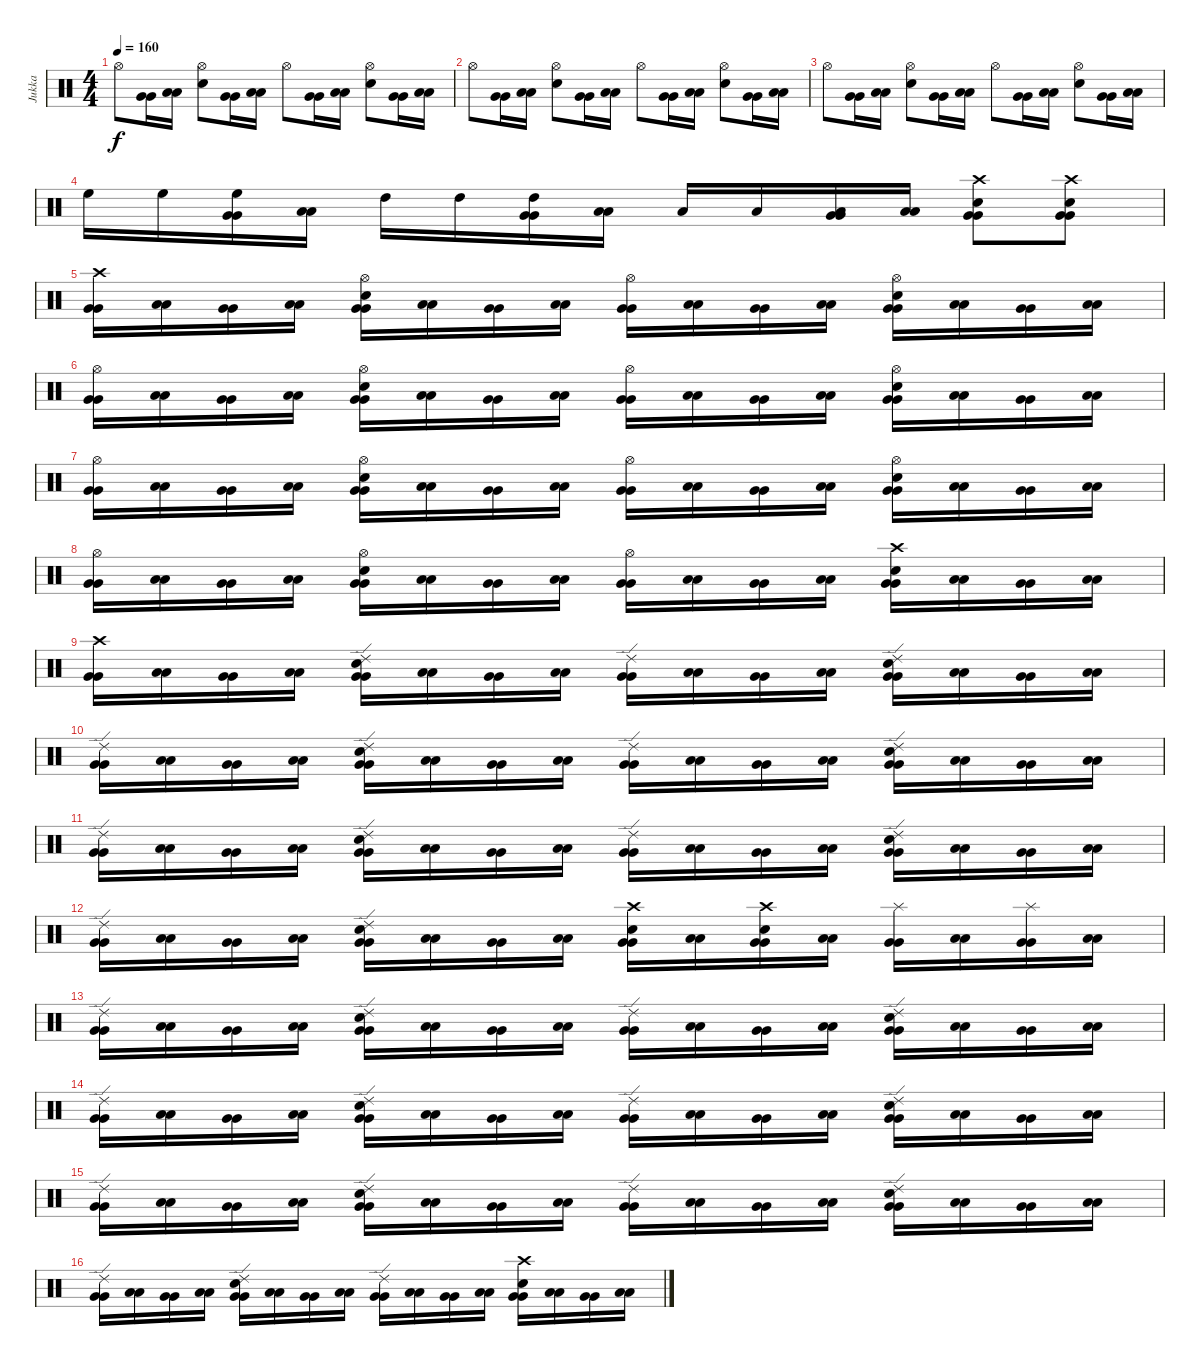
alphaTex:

\track ("Jukka" "Jukka") {instrument percussion}
\staff {score}
\articulation defaults
\ts (4 4)
\tempo 160
\clef neutral
\ks c "Hi-Hat (open)".8{dy f}
("Very Low Tom (hit)" "Very Low Tom (hit)").16 ("Low Floor Tom (hit)" "Low Floor Tom (hit)").16 ("Hi-Hat (open)" "Electric Snare (hit)").8 ("Very Low Tom (hit)" "Very Low Tom (hit)").16 ("Low Floor Tom (hit)" "Low Floor Tom (hit)").16 "Hi-Hat (open)".8 ("Very Low Tom (hit)" "Very Low Tom (hit)").16 ("Low Floor Tom (hit)" "Low Floor Tom (hit)").16 ("Hi-Hat (open)" "Electric Snare (hit)").8 ("Very Low Tom (hit)" "Very Low Tom (hit)").16 ("Low Floor Tom (hit)" "Low Floor Tom (hit)").16 |
"Hi-Hat (open)".8 ("Very Low Tom (hit)" "Very Low Tom (hit)").16 ("Low Floor Tom (hit)" "Low Floor Tom (hit)").16 ("Hi-Hat (open)" "Electric Snare (hit)").8 ("Very Low Tom (hit)" "Very Low Tom (hit)").16 ("Low Floor Tom (hit)" "Low Floor Tom (hit)").16 "Hi-Hat (open)".8 ("Very Low Tom (hit)" "Very Low Tom (hit)").16 ("Low Floor Tom (hit)" "Low Floor Tom (hit)").16 ("Hi-Hat (open)" "Electric Snare (hit)").8 ("Very Low Tom (hit)" "Very Low Tom (hit)").16 ("Low Floor Tom (hit)" "Low Floor Tom (hit)").16 |
"Hi-Hat (open)".8 ("Very Low Tom (hit)" "Very Low Tom (hit)").16 ("Low Floor Tom (hit)" "Low Floor Tom (hit)").16 ("Hi-Hat (open)" "Electric Snare (hit)").8 ("Very Low Tom (hit)" "Very Low Tom (hit)").16 ("Low Floor Tom (hit)" "Low Floor Tom (hit)").16 "Hi-Hat (open)".8 ("Very Low Tom (hit)" "Very Low Tom (hit)").16 ("Low Floor Tom (hit)" "Low Floor Tom (hit)").16 ("Hi-Hat (open)" "Electric Snare (hit)").8 ("Very Low Tom (hit)" "Very Low Tom (hit)").16 ("Low Floor Tom (hit)" "Low Floor Tom (hit)").16 |
"High Floor Tom (hit)".16 "High Floor Tom (hit)".16 ("High Floor Tom (hit)" "Very Low Tom (hit)" "Very Low Tom (hit)").16 ("Low Floor Tom (hit)" "Low Floor Tom (hit)").16 "High Tom (hit)".16 "High Tom (hit)".16 ("High Tom (hit)" "Very Low Tom (hit)" "Very Low Tom (hit)").16 ("Low Floor Tom (hit)" "Low Floor Tom (hit)").16 "Low Tom (hit)".16 "Low Tom (hit)".16 ("Low Tom (hit)" "Very Low Tom (hit)" "Very Low Tom (hit)").16 ("Low Floor Tom (hit)" "Low Floor Tom (hit)").16 ("Electric Snare (hit)" "Crash high (hit)" "Very Low Tom (hit)" "Very Low Tom (hit)").8 ("Electric Snare (hit)" "Crash high (hit)" "Very Low Tom (hit)" "Very Low Tom (hit)").8 |
("Crash high (hit)" "Very Low Tom (hit)" "Very Low Tom (hit)").16 ("Low Floor Tom (hit)" "Low Floor Tom (hit)").16 ("Very Low Tom (hit)" "Very Low Tom (hit)").16 ("Low Floor Tom (hit)" "Low Floor Tom (hit)").16 ("Electric Snare (hit)" "Hi-Hat (open)" "Very Low Tom (hit)" "Very Low Tom (hit)").16 ("Low Floor Tom (hit)" "Low Floor Tom (hit)").16 ("Very Low Tom (hit)" "Very Low Tom (hit)").16 ("Low Floor Tom (hit)" "Low Floor Tom (hit)").16 ("Hi-Hat (open)" "Very Low Tom (hit)" "Very Low Tom (hit)").16 ("Low Floor Tom (hit)" "Low Floor Tom (hit)").16 ("Very Low Tom (hit)" "Very Low Tom (hit)").16 ("Low Floor Tom (hit)" "Low Floor Tom (hit)").16 ("Electric Snare (hit)" "Hi-Hat (open)" "Very Low Tom (hit)" "Very Low Tom (hit)").16 ("Low Floor Tom (hit)" "Low Floor Tom (hit)").16 ("Very Low Tom (hit)" "Very Low Tom (hit)").16 ("Low Floor Tom (hit)" "Low Floor Tom (hit)").16 |
("Hi-Hat (open)" "Very Low Tom (hit)" "Very Low Tom (hit)").16 ("Low Floor Tom (hit)" "Low Floor Tom (hit)").16 ("Very Low Tom (hit)" "Very Low Tom (hit)").16 ("Low Floor Tom (hit)" "Low Floor Tom (hit)").16 ("Electric Snare (hit)" "Hi-Hat (open)" "Very Low Tom (hit)" "Very Low Tom (hit)").16 ("Low Floor Tom (hit)" "Low Floor Tom (hit)").16 ("Very Low Tom (hit)" "Very Low Tom (hit)").16 ("Low Floor Tom (hit)" "Low Floor Tom (hit)").16 ("Hi-Hat (open)" "Very Low Tom (hit)" "Very Low Tom (hit)").16 ("Low Floor Tom (hit)" "Low Floor Tom (hit)").16 ("Very Low Tom (hit)" "Very Low Tom (hit)").16 ("Low Floor Tom (hit)" "Low Floor Tom (hit)").16 ("Electric Snare (hit)" "Hi-Hat (open)" "Very Low Tom (hit)" "Very Low Tom (hit)").16 ("Low Floor Tom (hit)" "Low Floor Tom (hit)").16 ("Very Low Tom (hit)" "Very Low Tom (hit)").16 ("Low Floor Tom (hit)" "Low Floor Tom (hit)").16 |
("Hi-Hat (open)" "Very Low Tom (hit)" "Very Low Tom (hit)").16 ("Low Floor Tom (hit)" "Low Floor Tom (hit)").16 ("Very Low Tom (hit)" "Very Low Tom (hit)").16 ("Low Floor Tom (hit)" "Low Floor Tom (hit)").16 ("Electric Snare (hit)" "Hi-Hat (open)" "Very Low Tom (hit)" "Very Low Tom (hit)").16 ("Low Floor Tom (hit)" "Low Floor Tom (hit)").16 ("Very Low Tom (hit)" "Very Low Tom (hit)").16 ("Low Floor Tom (hit)" "Low Floor Tom (hit)").16 ("Hi-Hat (open)" "Very Low Tom (hit)" "Very Low Tom (hit)").16 ("Low Floor Tom (hit)" "Low Floor Tom (hit)").16 ("Very Low Tom (hit)" "Very Low Tom (hit)").16 ("Low Floor Tom (hit)" "Low Floor Tom (hit)").16 ("Electric Snare (hit)" "Hi-Hat (open)" "Very Low Tom (hit)" "Very Low Tom (hit)").16 ("Low Floor Tom (hit)" "Low Floor Tom (hit)").16 ("Very Low Tom (hit)" "Very Low Tom (hit)").16 ("Low Floor Tom (hit)" "Low Floor Tom (hit)").16 |
("Hi-Hat (open)" "Very Low Tom (hit)" "Very Low Tom (hit)").16 ("Low Floor Tom (hit)" "Low Floor Tom (hit)").16 ("Very Low Tom (hit)" "Very Low Tom (hit)").16 ("Low Floor Tom (hit)" "Low Floor Tom (hit)").16 ("Electric Snare (hit)" "Hi-Hat (open)" "Very Low Tom (hit)" "Very Low Tom (hit)").16 ("Low Floor Tom (hit)" "Low Floor Tom (hit)").16 ("Very Low Tom (hit)" "Very Low Tom (hit)").16 ("Low Floor Tom (hit)" "Low Floor Tom (hit)").16 ("Hi-Hat (open)" "Very Low Tom (hit)" "Very Low Tom (hit)").16 ("Low Floor Tom (hit)" "Low Floor Tom (hit)").16 ("Very Low Tom (hit)" "Very Low Tom (hit)").16 ("Low Floor Tom (hit)" "Low Floor Tom (hit)").16 ("Electric Snare (hit)" "Crash high (hit)" "Very Low Tom (hit)" "Very Low Tom (hit)").16 ("Low Floor Tom (hit)" "Low Floor Tom (hit)").16 ("Very Low Tom (hit)" "Very Low Tom (hit)").16 ("Low Floor Tom (hit)" "Low Floor Tom (hit)").16 |
("Crash high (hit)" "Very Low Tom (hit)" "Very Low Tom (hit)").16 ("Low Floor Tom (hit)" "Low Floor Tom (hit)").16 ("Very Low Tom (hit)" "Very Low Tom (hit)").16 ("Low Floor Tom (hit)" "Low Floor Tom (hit)").16 ("Electric Snare (hit)" "Ride (edge) 2" "Very Low Tom (hit)" "Very Low Tom (hit)").16 ("Low Floor Tom (hit)" "Low Floor Tom (hit)").16 ("Very Low Tom (hit)" "Very Low Tom (hit)").16 ("Low Floor Tom (hit)" "Low Floor Tom (hit)").16 ("Ride (edge) 2" "Very Low Tom (hit)" "Very Low Tom (hit)").16 ("Low Floor Tom (hit)" "Low Floor Tom (hit)").16 ("Very Low Tom (hit)" "Very Low Tom (hit)").16 ("Low Floor Tom (hit)" "Low Floor Tom (hit)").16 ("Electric Snare (hit)" "Ride (edge) 2" "Very Low Tom (hit)" "Very Low Tom (hit)").16 ("Low Floor Tom (hit)" "Low Floor Tom (hit)").16 ("Very Low Tom (hit)" "Very Low Tom (hit)").16 ("Low Floor Tom (hit)" "Low Floor Tom (hit)").16 |
("Ride (edge) 2" "Very Low Tom (hit)" "Very Low Tom (hit)").16 ("Low Floor Tom (hit)" "Low Floor Tom (hit)").16 ("Very Low Tom (hit)" "Very Low Tom (hit)").16 ("Low Floor Tom (hit)" "Low Floor Tom (hit)").16 ("Electric Snare (hit)" "Ride (edge) 2" "Very Low Tom (hit)" "Very Low Tom (hit)").16 ("Low Floor Tom (hit)" "Low Floor Tom (hit)").16 ("Very Low Tom (hit)" "Very Low Tom (hit)").16 ("Low Floor Tom (hit)" "Low Floor Tom (hit)").16 ("Ride (edge) 2" "Very Low Tom (hit)" "Very Low Tom (hit)").16 ("Low Floor Tom (hit)" "Low Floor Tom (hit)").16 ("Very Low Tom (hit)" "Very Low Tom (hit)").16 ("Low Floor Tom (hit)" "Low Floor Tom (hit)").16 ("Electric Snare (hit)" "Ride (edge) 2" "Very Low Tom (hit)" "Very Low Tom (hit)").16 ("Low Floor Tom (hit)" "Low Floor Tom (hit)").16 ("Very Low Tom (hit)" "Very Low Tom (hit)").16 ("Low Floor Tom (hit)" "Low Floor Tom (hit)").16 |
("Ride (edge) 2" "Very Low Tom (hit)" "Very Low Tom (hit)").16 ("Low Floor Tom (hit)" "Low Floor Tom (hit)").16 ("Very Low Tom (hit)" "Very Low Tom (hit)").16 ("Low Floor Tom (hit)" "Low Floor Tom (hit)").16 ("Electric Snare (hit)" "Ride (edge) 2" "Very Low Tom (hit)" "Very Low Tom (hit)").16 ("Low Floor Tom (hit)" "Low Floor Tom (hit)").16 ("Very Low Tom (hit)" "Very Low Tom (hit)").16 ("Low Floor Tom (hit)" "Low Floor Tom (hit)").16 ("Ride (edge) 2" "Very Low Tom (hit)" "Very Low Tom (hit)").16 ("Low Floor Tom (hit)" "Low Floor Tom (hit)").16 ("Very Low Tom (hit)" "Very Low Tom (hit)").16 ("Low Floor Tom (hit)" "Low Floor Tom (hit)").16 ("Electric Snare (hit)" "Ride (edge) 2" "Very Low Tom (hit)" "Very Low Tom (hit)").16 ("Low Floor Tom (hit)" "Low Floor Tom (hit)").16 ("Very Low Tom (hit)" "Very Low Tom (hit)").16 ("Low Floor Tom (hit)" "Low Floor Tom (hit)").16 |
("Ride (edge) 2" "Very Low Tom (hit)" "Very Low Tom (hit)").16 ("Low Floor Tom (hit)" "Low Floor Tom (hit)").16 ("Very Low Tom (hit)" "Very Low Tom (hit)").16 ("Low Floor Tom (hit)" "Low Floor Tom (hit)").16 ("Electric Snare (hit)" "Ride (edge) 2" "Very Low Tom (hit)" "Very Low Tom (hit)").16 ("Low Floor Tom (hit)" "Low Floor Tom (hit)").16 ("Very Low Tom (hit)" "Very Low Tom (hit)").16 ("Low Floor Tom (hit)" "Low Floor Tom (hit)").16 ("Electric Snare (hit)" "Crash high (hit)" "Very Low Tom (hit)" "Very Low Tom (hit)").16 ("Low Floor Tom (hit)" "Low Floor Tom (hit)").16 ("Electric Snare (hit)" "Crash high (hit)" "Very Low Tom (hit)" "Very Low Tom (hit)").16 ("Low Floor Tom (hit)" "Low Floor Tom (hit)").16 ("Splash (hit)" "Very Low Tom (hit)" "Very Low Tom (hit)").16 ("Low Floor Tom (hit)" "Low Floor Tom (hit)").16 ("Splash (hit)" "Very Low Tom (hit)" "Very Low Tom (hit)").16 ("Low Floor Tom (hit)" "Low Floor Tom (hit)").16 |
("Ride (edge) 2" "Very Low Tom (hit)" "Very Low Tom (hit)").16 ("Low Floor Tom (hit)" "Low Floor Tom (hit)").16 ("Very Low Tom (hit)" "Very Low Tom (hit)").16 ("Low Floor Tom (hit)" "Low Floor Tom (hit)").16 ("Electric Snare (hit)" "Ride (edge) 2" "Very Low Tom (hit)" "Very Low Tom (hit)").16 ("Low Floor Tom (hit)" "Low Floor Tom (hit)").16 ("Very Low Tom (hit)" "Very Low Tom (hit)").16 ("Low Floor Tom (hit)" "Low Floor Tom (hit)").16 ("Ride (edge) 2" "Very Low Tom (hit)" "Very Low Tom (hit)").16 ("Low Floor Tom (hit)" "Low Floor Tom (hit)").16 ("Very Low Tom (hit)" "Very Low Tom (hit)").16 ("Low Floor Tom (hit)" "Low Floor Tom (hit)").16 ("Electric Snare (hit)" "Ride (edge) 2" "Very Low Tom (hit)" "Very Low Tom (hit)").16 ("Low Floor Tom (hit)" "Low Floor Tom (hit)").16 ("Very Low Tom (hit)" "Very Low Tom (hit)").16 ("Low Floor Tom (hit)" "Low Floor Tom (hit)").16 |
("Ride (edge) 2" "Very Low Tom (hit)" "Very Low Tom (hit)").16 ("Low Floor Tom (hit)" "Low Floor Tom (hit)").16 ("Very Low Tom (hit)" "Very Low Tom (hit)").16 ("Low Floor Tom (hit)" "Low Floor Tom (hit)").16 ("Electric Snare (hit)" "Ride (edge) 2" "Very Low Tom (hit)" "Very Low Tom (hit)").16 ("Low Floor Tom (hit)" "Low Floor Tom (hit)").16 ("Very Low Tom (hit)" "Very Low Tom (hit)").16 ("Low Floor Tom (hit)" "Low Floor Tom (hit)").16 ("Ride (edge) 2" "Very Low Tom (hit)" "Very Low Tom (hit)").16 ("Low Floor Tom (hit)" "Low Floor Tom (hit)").16 ("Very Low Tom (hit)" "Very Low Tom (hit)").16 ("Low Floor Tom (hit)" "Low Floor Tom (hit)").16 ("Electric Snare (hit)" "Ride (edge) 2" "Very Low Tom (hit)" "Very Low Tom (hit)").16 ("Low Floor Tom (hit)" "Low Floor Tom (hit)").16 ("Very Low Tom (hit)" "Very Low Tom (hit)").16 ("Low Floor Tom (hit)" "Low Floor Tom (hit)").16 |
("Ride (edge) 2" "Very Low Tom (hit)" "Very Low Tom (hit)").16 ("Low Floor Tom (hit)" "Low Floor Tom (hit)").16 ("Very Low Tom (hit)" "Very Low Tom (hit)").16 ("Low Floor Tom (hit)" "Low Floor Tom (hit)").16 ("Electric Snare (hit)" "Ride (edge) 2" "Very Low Tom (hit)" "Very Low Tom (hit)").16 ("Low Floor Tom (hit)" "Low Floor Tom (hit)").16 ("Very Low Tom (hit)" "Very Low Tom (hit)").16 ("Low Floor Tom (hit)" "Low Floor Tom (hit)").16 ("Ride (edge) 2" "Very Low Tom (hit)" "Very Low Tom (hit)").16 ("Low Floor Tom (hit)" "Low Floor Tom (hit)").16 ("Very Low Tom (hit)" "Very Low Tom (hit)").16 ("Low Floor Tom (hit)" "Low Floor Tom (hit)").16 ("Electric Snare (hit)" "Ride (edge) 2" "Very Low Tom (hit)" "Very Low Tom (hit)").16 ("Low Floor Tom (hit)" "Low Floor Tom (hit)").16 ("Very Low Tom (hit)" "Very Low Tom (hit)").16 ("Low Floor Tom (hit)" "Low Floor Tom (hit)").16 |
("Ride (edge) 2" "Very Low Tom (hit)" "Very Low Tom (hit)").16 ("Low Floor Tom (hit)" "Low Floor Tom (hit)").16 ("Very Low Tom (hit)" "Very Low Tom (hit)").16 ("Low Floor Tom (hit)" "Low Floor Tom (hit)").16 ("Electric Snare (hit)" "Ride (edge) 2" "Very Low Tom (hit)" "Very Low Tom (hit)").16 ("Low Floor Tom (hit)" "Low Floor Tom (hit)").16 ("Very Low Tom (hit)" "Very Low Tom (hit)").16 ("Low Floor Tom (hit)" "Low Floor Tom (hit)").16 ("Ride (edge) 2" "Very Low Tom (hit)" "Very Low Tom (hit)").16 ("Low Floor Tom (hit)" "Low Floor Tom (hit)").16 ("Very Low Tom (hit)" "Very Low Tom (hit)").16 ("Low Floor Tom (hit)" "Low Floor Tom (hit)").16 ("Electric Snare (hit)" "Crash high (hit)" "Very Low Tom (hit)" "Very Low Tom (hit)").16 ("Low Floor Tom (hit)" "Low Floor Tom (hit)").16 ("Very Low Tom (hit)" "Very Low Tom (hit)").16 ("Low Floor Tom (hit)" "Low Floor Tom (hit)").16
